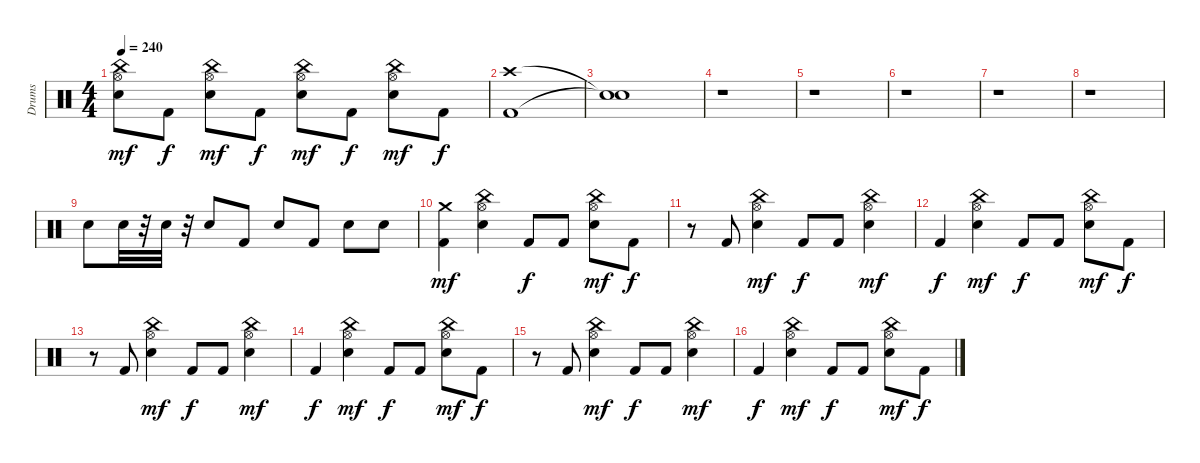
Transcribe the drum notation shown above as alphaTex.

\track ("Drums" "Drums") {instrument percussion}
\staff {score}
\articulation defaults
\ts (4 4)
\tempo 240
\clef neutral
\ks c
("Electric Snare (hit)" "China (hit)" "Hi-Hat (open)").8{dy mf} "Kick (hit) 2".8{dy f} ("Electric Snare (hit)" "China (hit)" "Hi-Hat (open)").8{dy mf} "Kick (hit) 2".8{dy f} ("Electric Snare (hit)" "China (hit)" "Hi-Hat (open)").8{dy mf} "Kick (hit) 2".8{dy f} ("Electric Snare (hit)" "China (hit)" "Hi-Hat (open)").8{dy mf} "Kick (hit) 2".8{dy f} |
("Crash high (hit)" "Kick (hit) 2").1 |
("Snare (hit)"{t} "Snare (hit)"{t}).1 |
r.1 |
r.1 |
r.1 |
r.1 |
r.1 |
"Electric Snare (hit)".8 "Electric Snare (hit)".32 r.32 "Electric Snare (hit)".32 r.32 "Electric Snare (hit)".8 "Kick (hit) 2".8 "Electric Snare (hit)".8 "Kick (hit) 2".8 "Electric Snare (hit)".8 "Electric Snare (hit)".8 |
("Kick (hit) 2" "Crash medium (hit)").4{dy mf} ("Electric Snare (hit)" "China (hit)" "Hi-Hat (open)").4 "Kick (hit) 2".8{dy f} "Kick (hit) 2".8 ("Electric Snare (hit)" "China (hit)" "Hi-Hat (open)").8{dy mf} "Kick (hit) 2".8{dy f} |
r.8 "Kick (hit) 2".8 ("Electric Snare (hit)" "China (hit)" "Hi-Hat (open)").4{dy mf} "Kick (hit) 2".8{dy f} "Kick (hit) 2".8 ("Electric Snare (hit)" "China (hit)" "Hi-Hat (open)").4{dy mf} |
"Kick (hit) 2".4{dy f} ("Electric Snare (hit)" "China (hit)" "Hi-Hat (open)").4{dy mf} "Kick (hit) 2".8{dy f} "Kick (hit) 2".8 ("Electric Snare (hit)" "China (hit)" "Hi-Hat (open)").8{dy mf} "Kick (hit) 2".8{dy f} |
r.8 "Kick (hit) 2".8 ("Electric Snare (hit)" "China (hit)" "Hi-Hat (open)").4{dy mf} "Kick (hit) 2".8{dy f} "Kick (hit) 2".8 ("Electric Snare (hit)" "China (hit)" "Hi-Hat (open)").4{dy mf} |
"Kick (hit) 2".4{dy f} ("Electric Snare (hit)" "China (hit)" "Hi-Hat (open)").4{dy mf} "Kick (hit) 2".8{dy f} "Kick (hit) 2".8 ("Electric Snare (hit)" "China (hit)" "Hi-Hat (open)").8{dy mf} "Kick (hit) 2".8{dy f} |
r.8 "Kick (hit) 2".8 ("Electric Snare (hit)" "China (hit)" "Hi-Hat (open)").4{dy mf} "Kick (hit) 2".8{dy f} "Kick (hit) 2".8 ("Electric Snare (hit)" "China (hit)" "Hi-Hat (open)").4{dy mf} |
"Kick (hit) 2".4{dy f} ("Electric Snare (hit)" "China (hit)" "Hi-Hat (open)").4{dy mf} "Kick (hit) 2".8{dy f} "Kick (hit) 2".8 ("Electric Snare (hit)" "China (hit)" "Hi-Hat (open)").8{dy mf} "Kick (hit) 2".8{dy f}
